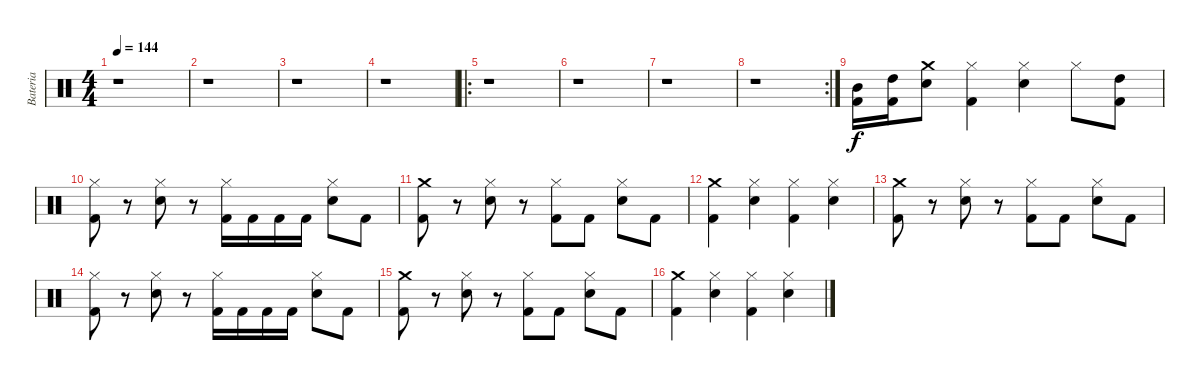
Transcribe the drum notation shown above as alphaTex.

\track ("Bateria" "Bateria") {instrument percussion}
\staff {score}
\articulation defaults
\ts (4 4)
\tempo 144
\clef neutral
\ks c
r.1{dy f} |
r.1 |
r.1 |
r.1 |
\ro
r.1 |
r.1 |
r.1 |
\rc 2
r.1 |
("Mid Tom (hit)" "Kick (hit) 2").16 ("High Tom (hit)" "Kick (hit) 2").16 ("Crash medium (hit)" "Electric Snare (hit)").8 ("Hi-Hat (closed)" "Kick (hit) 2").4 ("Hi-Hat (closed)" "Electric Snare (hit)").4 "Hi-Hat (closed)".8 ("High Tom (hit)" "Kick (hit) 2").8 |
("Hi-Hat (closed)" "Kick (hit) 2").8 r.8 ("Hi-Hat (closed)" "Electric Snare (hit)").8 r.8 ("Hi-Hat (closed)" "Kick (hit) 2").16 "Kick (hit) 2".16 "Kick (hit) 2".16 "Kick (hit) 2".16 ("Hi-Hat (closed)" "Electric Snare (hit)").8 "Kick (hit) 2".8 |
("Crash medium (hit)" "Kick (hit) 2").8 r.8 ("Hi-Hat (closed)" "Electric Snare (hit)").8 r.8 ("Hi-Hat (closed)" "Kick (hit) 2").8 "Kick (hit) 2".8 ("Hi-Hat (closed)" "Electric Snare (hit)").8 "Kick (hit) 2".8 |
("Crash medium (hit)" "Kick (hit) 2").4 ("Hi-Hat (closed)" "Electric Snare (hit)").4 ("Hi-Hat (closed)" "Kick (hit) 2").4 ("Hi-Hat (closed)" "Electric Snare (hit)").4 |
("Crash medium (hit)" "Kick (hit) 2").8 r.8 ("Hi-Hat (closed)" "Electric Snare (hit)").8 r.8 ("Hi-Hat (closed)" "Kick (hit) 2").8 "Kick (hit) 2".8 ("Hi-Hat (closed)" "Electric Snare (hit)").8 "Kick (hit) 2".8 |
("Hi-Hat (closed)" "Kick (hit) 2").8 r.8 ("Hi-Hat (closed)" "Electric Snare (hit)").8 r.8 ("Hi-Hat (closed)" "Kick (hit) 2").16 "Kick (hit) 2".16 "Kick (hit) 2".16 "Kick (hit) 2".16 ("Hi-Hat (closed)" "Electric Snare (hit)").8 "Kick (hit) 2".8 |
("Crash medium (hit)" "Kick (hit) 2").8 r.8 ("Hi-Hat (closed)" "Electric Snare (hit)").8 r.8 ("Hi-Hat (closed)" "Kick (hit) 2").8 "Kick (hit) 2".8 ("Hi-Hat (closed)" "Electric Snare (hit)").8 "Kick (hit) 2".8 |
("Crash medium (hit)" "Kick (hit) 2").4 ("Hi-Hat (closed)" "Electric Snare (hit)").4 ("Hi-Hat (closed)" "Kick (hit) 2").4 ("Hi-Hat (closed)" "Electric Snare (hit)").4
